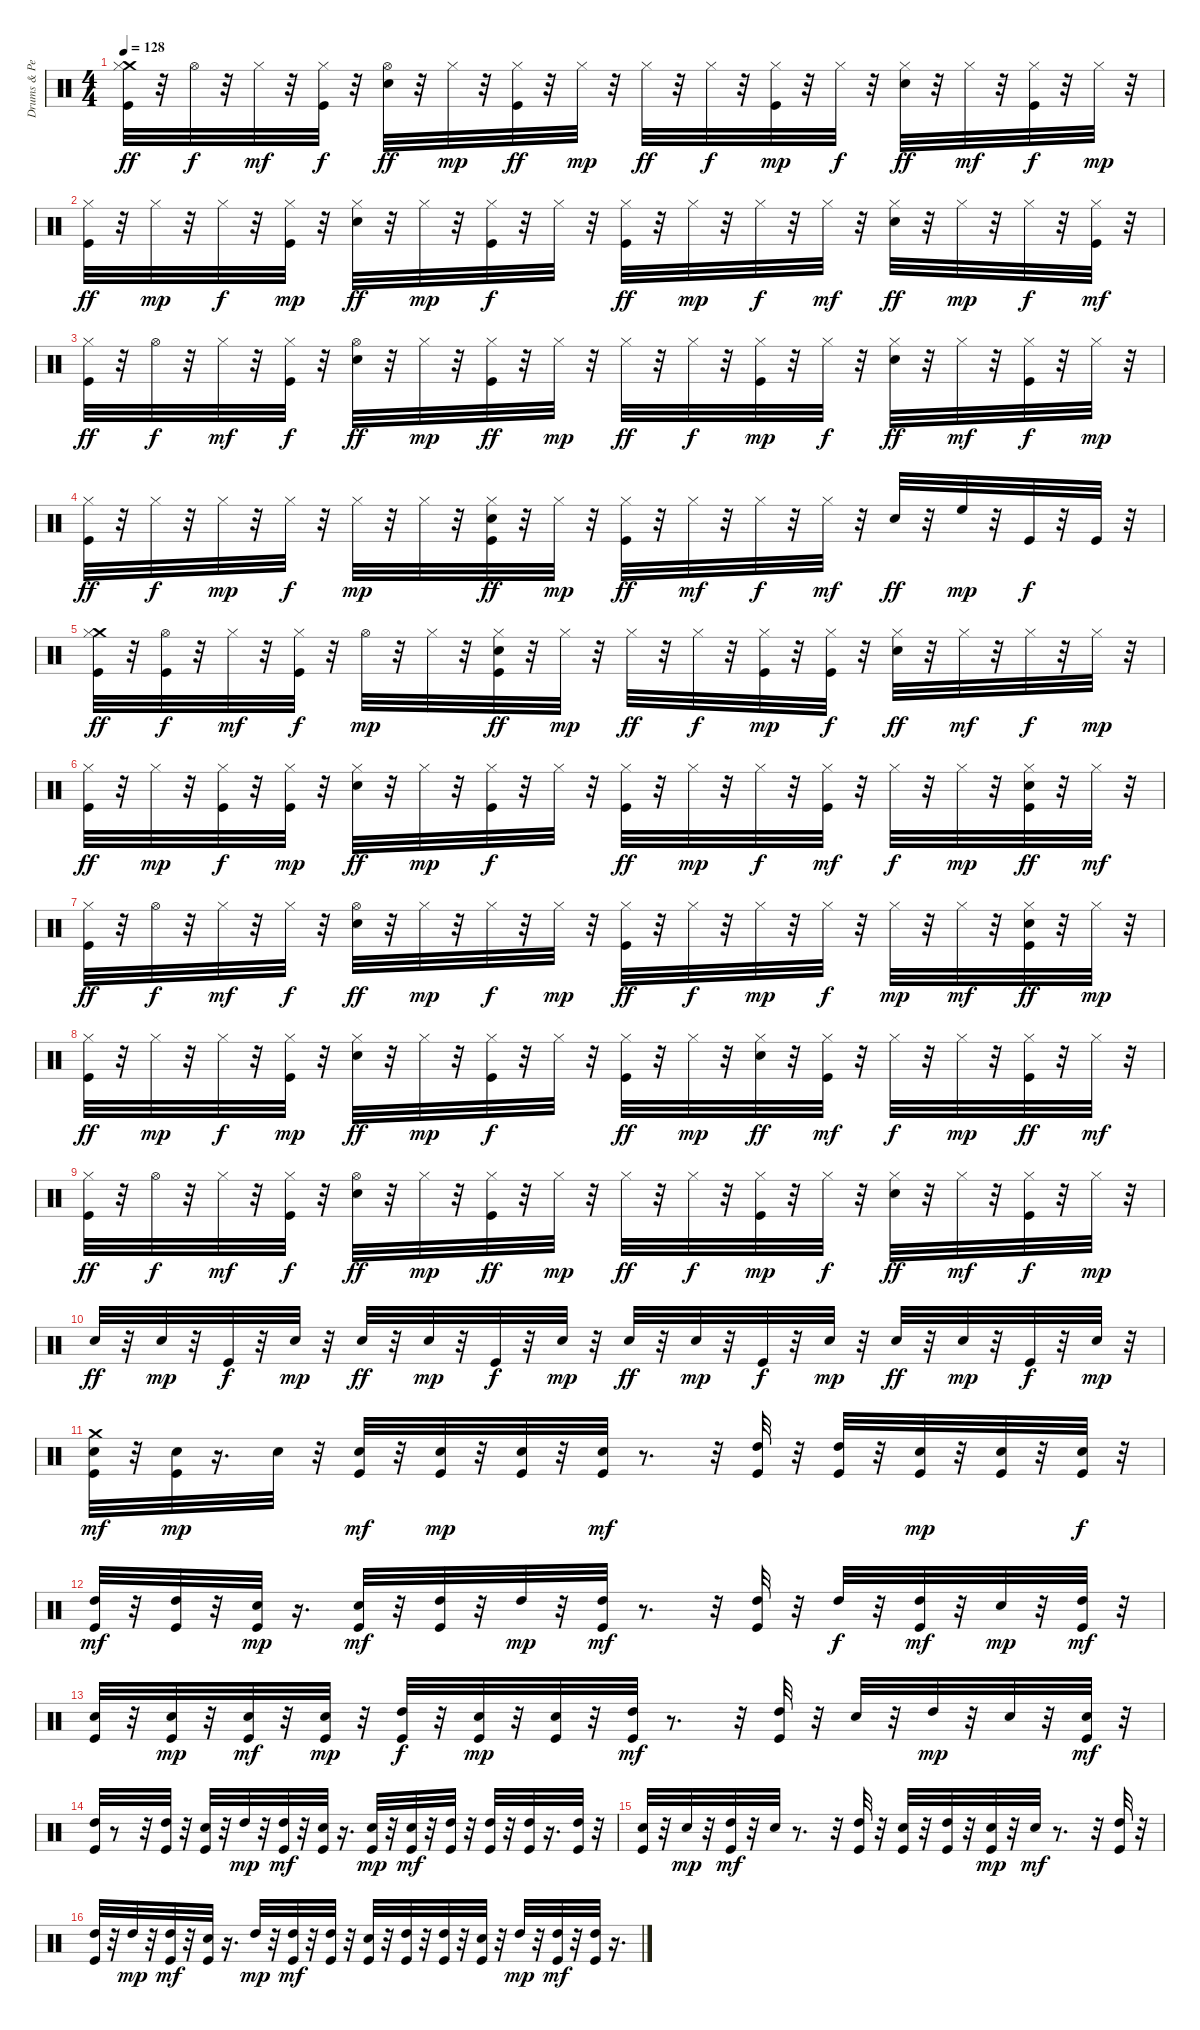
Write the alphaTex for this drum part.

\track ("Drums & Percussion" "Drums & Pe") {instrument percussion}
\staff {score}
\articulation defaults
\ts (4 4)
\tempo 128
\clef neutral
\ks c
("Crash medium (hit)" "Kick (hit)" "Hi-Hat (closed)").32{dy ff} r.32 "Hi-Hat (open)".32{dy f} r.32 "Hi-Hat (closed)".32{dy mf} r.32 ("Kick (hit)" "Hi-Hat (closed)").32{dy f} r.32 ("Hi-Hat (open)" "Electric Snare (hit)").32{dy ff} r.32 "Hi-Hat (closed)".32{dy mp} r.32 ("Kick (hit)" "Hi-Hat (closed)").32{dy ff} r.32 "Hi-Hat (closed)".32{dy mp} r.32 "Hi-Hat (closed)".32{dy ff} r.32 "Hi-Hat (closed)".32{dy f} r.32 ("Kick (hit)" "Hi-Hat (closed)").32{dy mp} r.32 "Hi-Hat (closed)".32{dy f} r.32 ("Hi-Hat (closed)" "Electric Snare (hit)").32{dy ff} r.32 "Hi-Hat (closed)".32{dy mf} r.32 ("Kick (hit)" "Hi-Hat (closed)").32{dy f} r.32 "Hi-Hat (closed)".32{dy mp} r.32 |
("Kick (hit)" "Hi-Hat (closed)").32{dy ff} r.32 "Hi-Hat (closed)".32{dy mp} r.32 "Hi-Hat (closed)".32{dy f} r.32 ("Kick (hit)" "Hi-Hat (closed)").32{dy mp} r.32 ("Hi-Hat (closed)" "Electric Snare (hit)").32{dy ff} r.32 "Hi-Hat (closed)".32{dy mp} r.32 ("Kick (hit)" "Hi-Hat (closed)").32{dy f} r.32 "Hi-Hat (closed)".32 r.32 ("Kick (hit)" "Hi-Hat (closed)").32{dy ff} r.32 "Hi-Hat (closed)".32{dy mp} r.32 "Hi-Hat (closed)".32{dy f} r.32 "Hi-Hat (closed)".32{dy mf} r.32 ("Hi-Hat (closed)" "Electric Snare (hit)").32{dy ff} r.32 "Hi-Hat (closed)".32{dy mp} r.32 "Hi-Hat (closed)".32{dy f} r.32 ("Kick (hit)" "Hi-Hat (closed)").32{dy mf} r.32 |
("Kick (hit)" "Hi-Hat (closed)").32{dy ff} r.32 "Hi-Hat (open)".32{dy f} r.32 "Hi-Hat (closed)".32{dy mf} r.32 ("Kick (hit)" "Hi-Hat (closed)").32{dy f} r.32 ("Hi-Hat (open)" "Electric Snare (hit)").32{dy ff} r.32 "Hi-Hat (closed)".32{dy mp} r.32 ("Kick (hit)" "Hi-Hat (closed)").32{dy ff} r.32 "Hi-Hat (closed)".32{dy mp} r.32 "Hi-Hat (closed)".32{dy ff} r.32 "Hi-Hat (closed)".32{dy f} r.32 ("Kick (hit)" "Hi-Hat (closed)").32{dy mp} r.32 "Hi-Hat (closed)".32{dy f} r.32 ("Hi-Hat (closed)" "Electric Snare (hit)").32{dy ff} r.32 "Hi-Hat (closed)".32{dy mf} r.32 ("Kick (hit)" "Hi-Hat (closed)").32{dy f} r.32 "Hi-Hat (closed)".32{dy mp} r.32 |
("Kick (hit)" "Hi-Hat (closed)").32{dy ff} r.32 "Hi-Hat (closed)".32{dy f} r.32 "Hi-Hat (closed)".32{dy mp} r.32 "Hi-Hat (closed)".32{dy f} r.32 "Hi-Hat (closed)".32{dy mp} r.32 "Hi-Hat (closed)".32 r.32 ("Kick (hit)" "Hi-Hat (closed)" "Electric Snare (hit)").32{dy ff} r.32 "Hi-Hat (closed)".32{dy mp} r.32 ("Kick (hit)" "Hi-Hat (closed)").32{dy ff} r.32 "Hi-Hat (closed)".32{dy mf} r.32 "Hi-Hat (closed)".32{dy f} r.32 "Hi-Hat (closed)".32{dy mf} r.32 "Electric Snare (hit)".32{dy ff} r.32 "High Floor Tom (hit)".32{dy mp} r.32 "Kick (hit)".32{dy f} r.32 "Kick (hit)".32 r.32 |
("Crash medium (hit)" "Kick (hit)" "Hi-Hat (closed)").32{dy ff} r.32 ("Kick (hit)" "Hi-Hat (open)").32{dy f} r.32 "Hi-Hat (closed)".32{dy mf} r.32 ("Kick (hit)" "Hi-Hat (closed)").32{dy f} r.32 "Hi-Hat (open)".32{dy mp} r.32 "Hi-Hat (closed)".32 r.32 ("Kick (hit)" "Hi-Hat (closed)" "Electric Snare (hit)").32{dy ff} r.32 "Hi-Hat (closed)".32{dy mp} r.32 "Hi-Hat (closed)".32{dy ff} r.32 "Hi-Hat (closed)".32{dy f} r.32 ("Kick (hit)" "Hi-Hat (closed)").32{dy mp} r.32 ("Kick (hit)" "Hi-Hat (closed)").32{dy f} r.32 ("Hi-Hat (closed)" "Electric Snare (hit)").32{dy ff} r.32 "Hi-Hat (closed)".32{dy mf} r.32 "Hi-Hat (closed)".32{dy f} r.32 "Hi-Hat (closed)".32{dy mp} r.32 |
("Kick (hit)" "Hi-Hat (closed)").32{dy ff} r.32 "Hi-Hat (closed)".32{dy mp} r.32 ("Kick (hit)" "Hi-Hat (closed)").32{dy f} r.32 ("Kick (hit)" "Hi-Hat (closed)").32{dy mp} r.32 ("Hi-Hat (closed)" "Electric Snare (hit)").32{dy ff} r.32 "Hi-Hat (closed)".32{dy mp} r.32 ("Kick (hit)" "Hi-Hat (closed)").32{dy f} r.32 "Hi-Hat (closed)".32 r.32 ("Kick (hit)" "Hi-Hat (closed)").32{dy ff} r.32 "Hi-Hat (closed)".32{dy mp} r.32 "Hi-Hat (closed)".32{dy f} r.32 ("Kick (hit)" "Hi-Hat (closed)").32{dy mf} r.32 "Hi-Hat (closed)".32{dy f} r.32 "Hi-Hat (closed)".32{dy mp} r.32 ("Kick (hit)" "Hi-Hat (closed)" "Electric Snare (hit)").32{dy ff} r.32 "Hi-Hat (closed)".32{dy mf} r.32 |
("Kick (hit)" "Hi-Hat (closed)").32{dy ff} r.32 "Hi-Hat (open)".32{dy f} r.32 "Hi-Hat (closed)".32{dy mf} r.32 "Hi-Hat (closed)".32{dy f} r.32 ("Hi-Hat (open)" "Electric Snare (hit)").32{dy ff} r.32 "Hi-Hat (closed)".32{dy mp} r.32 "Hi-Hat (closed)".32{dy f} r.32 "Hi-Hat (closed)".32{dy mp} r.32 ("Kick (hit)" "Hi-Hat (closed)").32{dy ff} r.32 "Hi-Hat (closed)".32{dy f} r.32 "Hi-Hat (closed)".32{dy mp} r.32 "Hi-Hat (closed)".32{dy f} r.32 "Hi-Hat (closed)".32{dy mp} r.32 "Hi-Hat (closed)".32{dy mf} r.32 ("Kick (hit)" "Hi-Hat (closed)" "Electric Snare (hit)").32{dy ff} r.32 "Hi-Hat (closed)".32{dy mp} r.32 |
("Kick (hit)" "Hi-Hat (closed)").32{dy ff} r.32 "Hi-Hat (closed)".32{dy mp} r.32 "Hi-Hat (closed)".32{dy f} r.32 ("Kick (hit)" "Hi-Hat (closed)").32{dy mp} r.32 ("Hi-Hat (closed)" "Electric Snare (hit)").32{dy ff} r.32 "Hi-Hat (closed)".32{dy mp} r.32 ("Kick (hit)" "Hi-Hat (closed)").32{dy f} r.32 "Hi-Hat (closed)".32 r.32 ("Kick (hit)" "Hi-Hat (closed)").32{dy ff} r.32 "Hi-Hat (closed)".32{dy mp} r.32 ("Hi-Hat (closed)" "Electric Snare (hit)").32{dy ff} r.32 ("Kick (hit)" "Hi-Hat (closed)").32{dy mf} r.32 "Hi-Hat (closed)".32{dy f} r.32 "Hi-Hat (closed)".32{dy mp} r.32 ("Kick (hit)" "Hi-Hat (closed)").32{dy ff} r.32 "Hi-Hat (closed)".32{dy mf} r.32 |
("Kick (hit)" "Hi-Hat (closed)").32{dy ff} r.32 "Hi-Hat (open)".32{dy f} r.32 "Hi-Hat (closed)".32{dy mf} r.32 ("Kick (hit)" "Hi-Hat (closed)").32{dy f} r.32 ("Hi-Hat (open)" "Electric Snare (hit)").32{dy ff} r.32 "Hi-Hat (closed)".32{dy mp} r.32 ("Kick (hit)" "Hi-Hat (closed)").32{dy ff} r.32 "Hi-Hat (closed)".32{dy mp} r.32 "Hi-Hat (closed)".32{dy ff} r.32 "Hi-Hat (closed)".32{dy f} r.32 ("Kick (hit)" "Hi-Hat (closed)").32{dy mp} r.32 "Hi-Hat (closed)".32{dy f} r.32 ("Hi-Hat (closed)" "Electric Snare (hit)").32{dy ff} r.32 "Hi-Hat (closed)".32{dy mf} r.32 ("Kick (hit)" "Hi-Hat (closed)").32{dy f} r.32 "Hi-Hat (closed)".32{dy mp} r.32 |
"Electric Snare (hit)".32{dy ff} r.32 "Electric Snare (hit)".32{dy mp} r.32 "Kick (hit)".32{dy f} r.32 "Electric Snare (hit)".32{dy mp} r.32 "Electric Snare (hit)".32{dy ff} r.32 "Electric Snare (hit)".32{dy mp} r.32 "Kick (hit)".32{dy f} r.32 "Electric Snare (hit)".32{dy mp} r.32 "Electric Snare (hit)".32{dy ff} r.32 "Electric Snare (hit)".32{dy mp} r.32 "Kick (hit)".32{dy f} r.32 "Electric Snare (hit)".32{dy mp} r.32 "Electric Snare (hit)".32{dy ff} r.32 "Electric Snare (hit)".32{dy mp} r.32 "Kick (hit)".32{dy f} r.32 "Electric Snare (hit)".32{dy mp} r.32 |
("Crash medium (hit)" "Kick (hit)" "Electric Snare (hit)").32{dy mf} r.32 ("Kick (hit)" "Electric Snare (hit)").32{dy mp} r.16{d} "Electric Snare (hit)".32 r.32 ("Kick (hit)" "Electric Snare (hit)").32{dy mf} r.32 ("Kick (hit)" "Electric Snare (hit)").32{dy mp} r.32 ("Kick (hit)" "Electric Snare (hit)").32 r.32 ("Kick (hit)" "Electric Snare (hit)").32{dy mf} r.8{d} r.32 ("High Tom (hit)" "Kick (hit)").32 r.32 ("High Tom (hit)" "Kick (hit)").32 r.32 ("Kick (hit)" "Electric Snare (hit)").32{dy mp} r.32 ("Kick (hit)" "Electric Snare (hit)").32 r.32 ("Kick (hit)" "Electric Snare (hit)").32{dy f} r.32 |
("High Tom (hit)" "Kick (hit)").32{dy mf} r.32 ("High Tom (hit)" "Kick (hit)").32 r.32 ("Kick (hit)" "Electric Snare (hit)").32{dy mp} r.16{d} ("Kick (hit)" "Electric Snare (hit)").32{dy mf} r.32 ("High Tom (hit)" "Kick (hit)").32 r.32 "High Tom (hit)".32{dy mp} r.32 ("High Tom (hit)" "Kick (hit)").32{dy mf} r.8{d} r.32 ("High Tom (hit)" "Kick (hit)").32 r.32 "High Tom (hit)".32{dy f} r.32 ("High Tom (hit)" "Kick (hit)").32{dy mf} r.32 "Electric Snare (hit)".32{dy mp} r.32 ("High Tom (hit)" "Kick (hit)").32{dy mf} r.32 |
("Kick (hit)" "Electric Snare (hit)").32 r.32 ("Kick (hit)" "Electric Snare (hit)").32{dy mp} r.32 ("Kick (hit)" "Electric Snare (hit)").32{dy mf} r.32 ("Kick (hit)" "Electric Snare (hit)").32{dy mp} r.32 ("High Tom (hit)" "Kick (hit)").32{dy f} r.32 ("Kick (hit)" "Electric Snare (hit)").32{dy mp} r.32 ("Kick (hit)" "Electric Snare (hit)").32 r.32 ("High Tom (hit)" "Kick (hit)").32{dy mf} r.8{d} r.32 ("High Tom (hit)" "Kick (hit)").32 r.32 "Electric Snare (hit)".32 r.32 "High Tom (hit)".32{dy mp} r.32 "Electric Snare (hit)".32 r.32 ("Kick (hit)" "Electric Snare (hit)").32{dy mf} r.32 |
("High Tom (hit)" "Kick (hit)").32 r.8 r.32 ("High Tom (hit)" "Kick (hit)").32 r.32 ("Kick (hit)" "Electric Snare (hit)").32 r.32 "High Tom (hit)".32{dy mp} r.32 ("High Tom (hit)" "Kick (hit)").32{dy mf} r.32 ("Kick (hit)" "Electric Snare (hit)").32 r.16{d} ("Kick (hit)" "Electric Snare (hit)").32{dy mp} r.32 ("Kick (hit)" "Electric Snare (hit)").32{dy mf} r.32 ("High Tom (hit)" "Kick (hit)").32 r.32 ("High Tom (hit)" "Kick (hit)").32 r.32 ("High Tom (hit)" "Kick (hit)").32 r.16{d} ("High Tom (hit)" "Kick (hit)").32 r.32 |
("Kick (hit)" "Electric Snare (hit)").32 r.32 "Electric Snare (hit)".32{dy mp} r.32 ("High Tom (hit)" "Kick (hit)").32{dy mf} r.32 "Electric Snare (hit)".32 r.8{d} r.32 ("High Tom (hit)" "Kick (hit)").32 r.32 ("Kick (hit)" "Electric Snare (hit)").32 r.32 ("High Tom (hit)" "Kick (hit)").32 r.32 ("Kick (hit)" "Electric Snare (hit)").32{dy mp} r.32 "Electric Snare (hit)".32{dy mf} r.8{d} r.32 ("High Tom (hit)" "Kick (hit)").32 r.32 |
("High Tom (hit)" "Kick (hit)").32 r.32 "High Tom (hit)".32{dy mp} r.32 ("High Tom (hit)" "Kick (hit)").32{dy mf} r.32 ("Kick (hit)" "Electric Snare (hit)").32 r.16{d} "High Tom (hit)".32{dy mp} r.32 ("High Tom (hit)" "Kick (hit)").32{dy mf} r.32 ("High Tom (hit)" "Kick (hit)").32 r.32 ("Kick (hit)" "Electric Snare (hit)").32 r.32 ("High Tom (hit)" "Kick (hit)").32 r.32 ("High Tom (hit)" "Kick (hit)").32 r.32 ("Kick (hit)" "Electric Snare (hit)").32 r.32 "High Tom (hit)".32{dy mp} r.32 ("High Tom (hit)" "Kick (hit)").32{dy mf} r.32 ("High Tom (hit)" "Kick (hit)").32 r.16{d}
